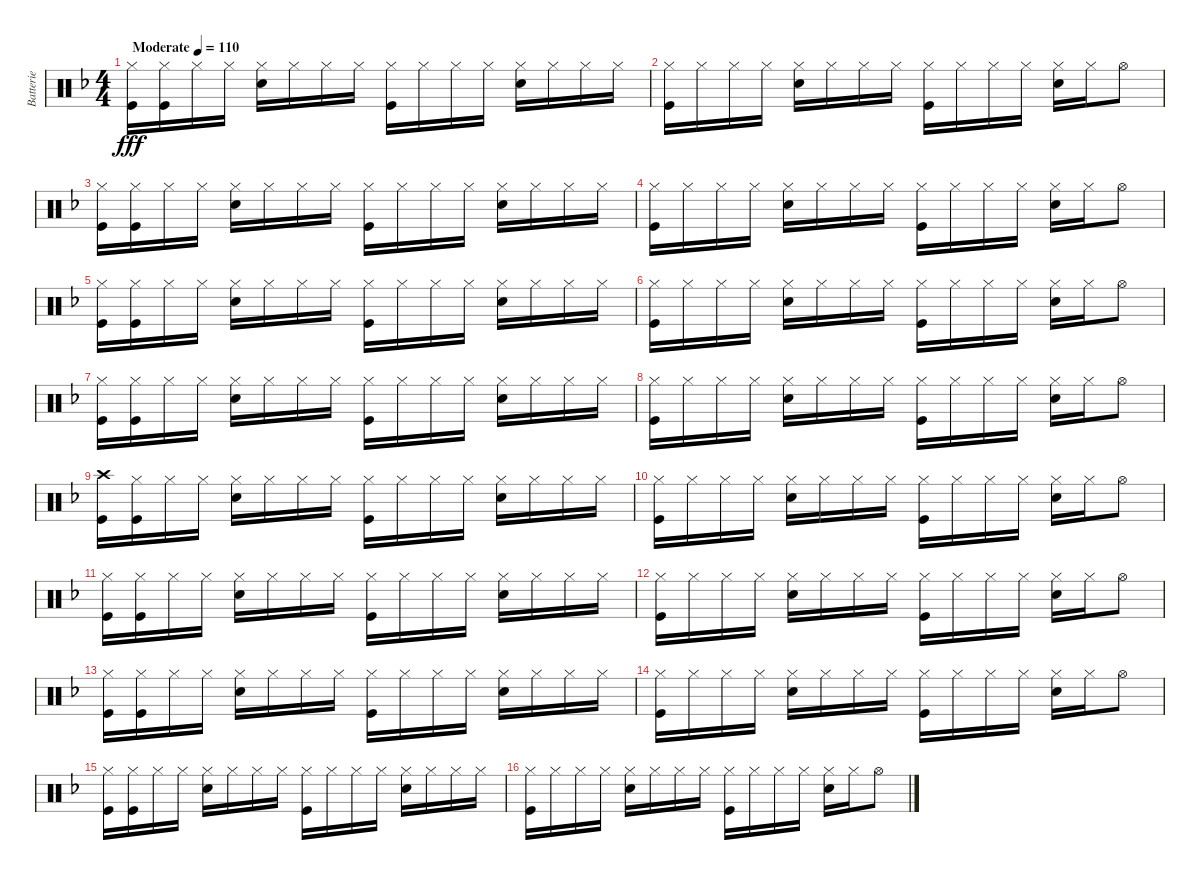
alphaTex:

\track ("Batterie" "Batterie") {instrument percussion}
\staff {score}
\articulation defaults
\ts (4 4)
\tempo (110 "Moderate")
\clef neutral
\ks f
("Hi-Hat (closed)" "Kick (hit)").16{dy fff} ("Hi-Hat (closed)" "Kick (hit)").16 "Hi-Hat (closed)".16 "Hi-Hat (closed)".16 ("Hi-Hat (closed)" "Snare (hit) 2").16 "Hi-Hat (closed)".16 "Hi-Hat (closed)".16 "Hi-Hat (closed)".16 ("Hi-Hat (closed)" "Kick (hit)").16 "Hi-Hat (closed)".16 "Hi-Hat (closed)".16 "Hi-Hat (closed)".16 ("Hi-Hat (closed)" "Snare (hit) 2").16 "Hi-Hat (closed)".16 "Hi-Hat (closed)".16 "Hi-Hat (closed)".16 |
("Hi-Hat (closed)" "Kick (hit)").16 "Hi-Hat (closed)".16 "Hi-Hat (closed)".16 "Hi-Hat (closed)".16 ("Hi-Hat (closed)" "Snare (hit) 2").16 "Hi-Hat (closed)".16 "Hi-Hat (closed)".16 "Hi-Hat (closed)".16 ("Hi-Hat (closed)" "Kick (hit)").16 "Hi-Hat (closed)".16 "Hi-Hat (closed)".16 "Hi-Hat (closed)".16 ("Hi-Hat (closed)" "Snare (hit) 2").16 "Hi-Hat (closed)".16 "Hi-Hat (open)".8 |
("Hi-Hat (closed)" "Kick (hit)").16 ("Hi-Hat (closed)" "Kick (hit)").16 "Hi-Hat (closed)".16 "Hi-Hat (closed)".16 ("Hi-Hat (closed)" "Snare (hit) 2").16 "Hi-Hat (closed)".16 "Hi-Hat (closed)".16 "Hi-Hat (closed)".16 ("Hi-Hat (closed)" "Kick (hit)").16 "Hi-Hat (closed)".16 "Hi-Hat (closed)".16 "Hi-Hat (closed)".16 ("Hi-Hat (closed)" "Snare (hit) 2").16 "Hi-Hat (closed)".16 "Hi-Hat (closed)".16 "Hi-Hat (closed)".16 |
("Hi-Hat (closed)" "Kick (hit)").16 "Hi-Hat (closed)".16 "Hi-Hat (closed)".16 "Hi-Hat (closed)".16 ("Hi-Hat (closed)" "Snare (hit) 2").16 "Hi-Hat (closed)".16 "Hi-Hat (closed)".16 "Hi-Hat (closed)".16 ("Hi-Hat (closed)" "Kick (hit)").16 "Hi-Hat (closed)".16 "Hi-Hat (closed)".16 "Hi-Hat (closed)".16 ("Hi-Hat (closed)" "Snare (hit) 2").16 "Hi-Hat (closed)".16 "Hi-Hat (open)".8 |
("Hi-Hat (closed)" "Kick (hit)").16 ("Hi-Hat (closed)" "Kick (hit)").16 "Hi-Hat (closed)".16 "Hi-Hat (closed)".16 ("Hi-Hat (closed)" "Snare (hit) 2").16 "Hi-Hat (closed)".16 "Hi-Hat (closed)".16 "Hi-Hat (closed)".16 ("Hi-Hat (closed)" "Kick (hit)").16 "Hi-Hat (closed)".16 "Hi-Hat (closed)".16 "Hi-Hat (closed)".16 ("Hi-Hat (closed)" "Snare (hit) 2").16 "Hi-Hat (closed)".16 "Hi-Hat (closed)".16 "Hi-Hat (closed)".16 |
("Hi-Hat (closed)" "Kick (hit)").16 "Hi-Hat (closed)".16 "Hi-Hat (closed)".16 "Hi-Hat (closed)".16 ("Hi-Hat (closed)" "Snare (hit) 2").16 "Hi-Hat (closed)".16 "Hi-Hat (closed)".16 "Hi-Hat (closed)".16 ("Hi-Hat (closed)" "Kick (hit)").16 "Hi-Hat (closed)".16 "Hi-Hat (closed)".16 "Hi-Hat (closed)".16 ("Hi-Hat (closed)" "Snare (hit) 2").16 "Hi-Hat (closed)".16 "Hi-Hat (open)".8 |
("Hi-Hat (closed)" "Kick (hit)").16 ("Hi-Hat (closed)" "Kick (hit)").16 "Hi-Hat (closed)".16 "Hi-Hat (closed)".16 ("Hi-Hat (closed)" "Snare (hit) 2").16 "Hi-Hat (closed)".16 "Hi-Hat (closed)".16 "Hi-Hat (closed)".16 ("Hi-Hat (closed)" "Kick (hit)").16 "Hi-Hat (closed)".16 "Hi-Hat (closed)".16 "Hi-Hat (closed)".16 ("Hi-Hat (closed)" "Snare (hit) 2").16 "Hi-Hat (closed)".16 "Hi-Hat (closed)".16 "Hi-Hat (closed)".16 |
("Hi-Hat (closed)" "Kick (hit)").16 "Hi-Hat (closed)".16 "Hi-Hat (closed)".16 "Hi-Hat (closed)".16 ("Hi-Hat (closed)" "Snare (hit) 2").16 "Hi-Hat (closed)".16 "Hi-Hat (closed)".16 "Hi-Hat (closed)".16 ("Hi-Hat (closed)" "Kick (hit)").16 "Hi-Hat (closed)".16 "Hi-Hat (closed)".16 "Hi-Hat (closed)".16 ("Hi-Hat (closed)" "Snare (hit) 2").16 "Hi-Hat (closed)".16 "Hi-Hat (open)".8 |
("Crash high (hit)" "Kick (hit)").16 ("Hi-Hat (closed)" "Kick (hit)").16 "Hi-Hat (closed)".16 "Hi-Hat (closed)".16 ("Hi-Hat (closed)" "Snare (hit) 2").16 "Hi-Hat (closed)".16 "Hi-Hat (closed)".16 "Hi-Hat (closed)".16 ("Hi-Hat (closed)" "Kick (hit)").16 "Hi-Hat (closed)".16 "Hi-Hat (closed)".16 "Hi-Hat (closed)".16 ("Hi-Hat (closed)" "Snare (hit) 2").16 "Hi-Hat (closed)".16 "Hi-Hat (closed)".16 "Hi-Hat (closed)".16 |
("Hi-Hat (closed)" "Kick (hit)").16 "Hi-Hat (closed)".16 "Hi-Hat (closed)".16 "Hi-Hat (closed)".16 ("Hi-Hat (closed)" "Snare (hit) 2").16 "Hi-Hat (closed)".16 "Hi-Hat (closed)".16 "Hi-Hat (closed)".16 ("Hi-Hat (closed)" "Kick (hit)").16 "Hi-Hat (closed)".16 "Hi-Hat (closed)".16 "Hi-Hat (closed)".16 ("Hi-Hat (closed)" "Snare (hit) 2").16 "Hi-Hat (closed)".16 "Hi-Hat (open)".8 |
("Hi-Hat (closed)" "Kick (hit)").16 ("Hi-Hat (closed)" "Kick (hit)").16 "Hi-Hat (closed)".16 "Hi-Hat (closed)".16 ("Hi-Hat (closed)" "Snare (hit) 2").16 "Hi-Hat (closed)".16 "Hi-Hat (closed)".16 "Hi-Hat (closed)".16 ("Hi-Hat (closed)" "Kick (hit)").16 "Hi-Hat (closed)".16 "Hi-Hat (closed)".16 "Hi-Hat (closed)".16 ("Hi-Hat (closed)" "Snare (hit) 2").16 "Hi-Hat (closed)".16 "Hi-Hat (closed)".16 "Hi-Hat (closed)".16 |
("Hi-Hat (closed)" "Kick (hit)").16 "Hi-Hat (closed)".16 "Hi-Hat (closed)".16 "Hi-Hat (closed)".16 ("Hi-Hat (closed)" "Snare (hit) 2").16 "Hi-Hat (closed)".16 "Hi-Hat (closed)".16 "Hi-Hat (closed)".16 ("Hi-Hat (closed)" "Kick (hit)").16 "Hi-Hat (closed)".16 "Hi-Hat (closed)".16 "Hi-Hat (closed)".16 ("Hi-Hat (closed)" "Snare (hit) 2").16 "Hi-Hat (closed)".16 "Hi-Hat (open)".8 |
("Hi-Hat (closed)" "Kick (hit)").16 ("Hi-Hat (closed)" "Kick (hit)").16 "Hi-Hat (closed)".16 "Hi-Hat (closed)".16 ("Hi-Hat (closed)" "Snare (hit) 2").16 "Hi-Hat (closed)".16 "Hi-Hat (closed)".16 "Hi-Hat (closed)".16 ("Hi-Hat (closed)" "Kick (hit)").16 "Hi-Hat (closed)".16 "Hi-Hat (closed)".16 "Hi-Hat (closed)".16 ("Hi-Hat (closed)" "Snare (hit) 2").16 "Hi-Hat (closed)".16 "Hi-Hat (closed)".16 "Hi-Hat (closed)".16 |
("Hi-Hat (closed)" "Kick (hit)").16 "Hi-Hat (closed)".16 "Hi-Hat (closed)".16 "Hi-Hat (closed)".16 ("Hi-Hat (closed)" "Snare (hit) 2").16 "Hi-Hat (closed)".16 "Hi-Hat (closed)".16 "Hi-Hat (closed)".16 ("Hi-Hat (closed)" "Kick (hit)").16 "Hi-Hat (closed)".16 "Hi-Hat (closed)".16 "Hi-Hat (closed)".16 ("Hi-Hat (closed)" "Snare (hit) 2").16 "Hi-Hat (closed)".16 "Hi-Hat (open)".8 |
("Hi-Hat (closed)" "Kick (hit)").16 ("Hi-Hat (closed)" "Kick (hit)").16 "Hi-Hat (closed)".16 "Hi-Hat (closed)".16 ("Hi-Hat (closed)" "Snare (hit) 2").16 "Hi-Hat (closed)".16 "Hi-Hat (closed)".16 "Hi-Hat (closed)".16 ("Hi-Hat (closed)" "Kick (hit)").16 "Hi-Hat (closed)".16 "Hi-Hat (closed)".16 "Hi-Hat (closed)".16 ("Hi-Hat (closed)" "Snare (hit) 2").16 "Hi-Hat (closed)".16 "Hi-Hat (closed)".16 "Hi-Hat (closed)".16 |
("Hi-Hat (closed)" "Kick (hit)").16 "Hi-Hat (closed)".16 "Hi-Hat (closed)".16 "Hi-Hat (closed)".16 ("Hi-Hat (closed)" "Snare (hit) 2").16 "Hi-Hat (closed)".16 "Hi-Hat (closed)".16 "Hi-Hat (closed)".16 ("Hi-Hat (closed)" "Kick (hit)").16 "Hi-Hat (closed)".16 "Hi-Hat (closed)".16 "Hi-Hat (closed)".16 ("Hi-Hat (closed)" "Snare (hit) 2").16 "Hi-Hat (closed)".16 "Hi-Hat (open)".8
